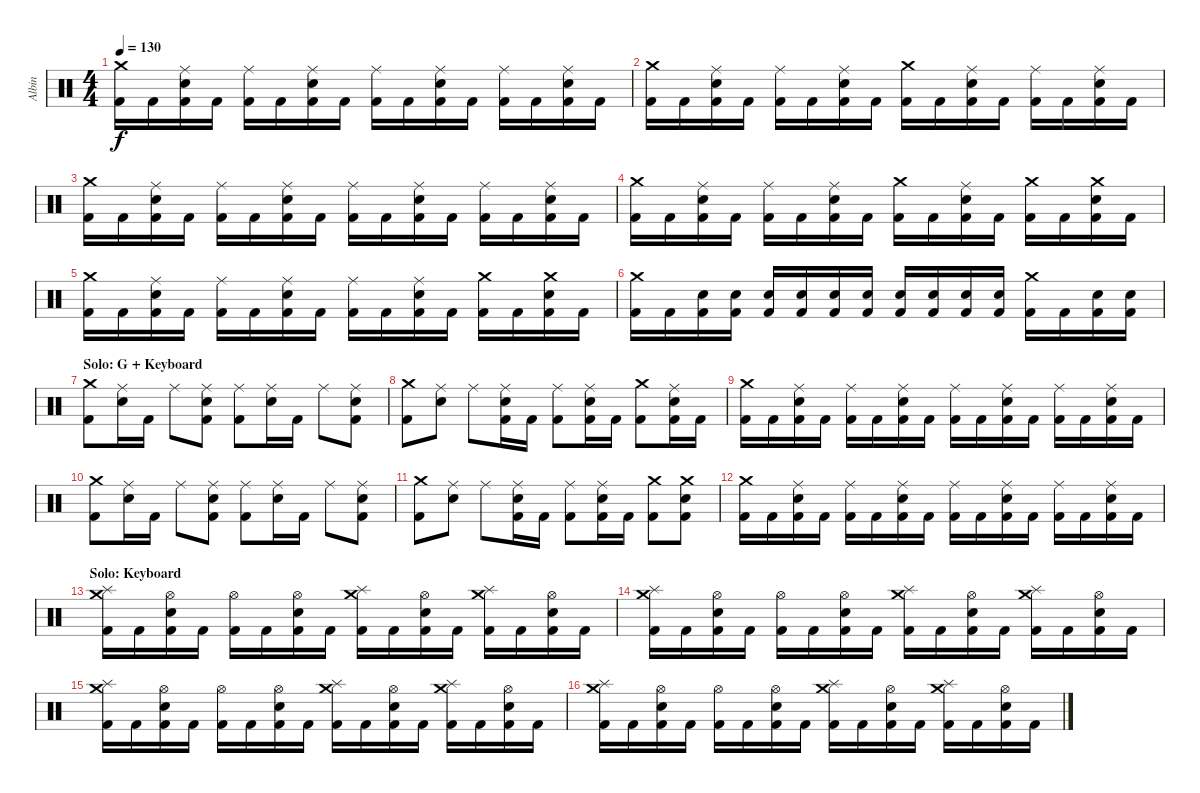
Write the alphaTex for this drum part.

\track ("Albin" "Albin") {instrument percussion}
\staff {score}
\articulation defaults
\ts (4 4)
\tempo 130
\clef neutral
\ks c
("Crash medium (hit)" "Kick (hit) 2").16{dy f} "Kick (hit) 2".16 ("Ride (middle)" "Electric Snare (hit)" "Kick (hit) 2").16 "Kick (hit) 2".16 ("Ride (middle)" "Kick (hit) 2").16 "Kick (hit) 2".16 ("Ride (middle)" "Electric Snare (hit)" "Kick (hit) 2").16 "Kick (hit) 2".16 ("Ride (middle)" "Kick (hit) 2").16 "Kick (hit) 2".16 ("Ride (middle)" "Electric Snare (hit)" "Kick (hit) 2").16 "Kick (hit) 2".16 ("Ride (middle)" "Kick (hit) 2").16 "Kick (hit) 2".16 ("Ride (middle)" "Electric Snare (hit)" "Kick (hit) 2").16 "Kick (hit) 2".16 |
("Crash medium (hit)" "Kick (hit) 2").16 "Kick (hit) 2".16 ("Ride (middle)" "Electric Snare (hit)" "Kick (hit) 2").16 "Kick (hit) 2".16 ("Ride (middle)" "Kick (hit) 2").16 "Kick (hit) 2".16 ("Ride (middle)" "Electric Snare (hit)" "Kick (hit) 2").16 "Kick (hit) 2".16 ("Crash medium (hit)" "Kick (hit) 2").16 "Kick (hit) 2".16 ("Ride (middle)" "Electric Snare (hit)" "Kick (hit) 2").16 "Kick (hit) 2".16 ("Ride (middle)" "Kick (hit) 2").16 "Kick (hit) 2".16 ("Ride (middle)" "Electric Snare (hit)" "Kick (hit) 2").16 "Kick (hit) 2".16 |
("Crash medium (hit)" "Kick (hit) 2").16 "Kick (hit) 2".16 ("Ride (middle)" "Electric Snare (hit)" "Kick (hit) 2").16 "Kick (hit) 2".16 ("Ride (middle)" "Kick (hit) 2").16 "Kick (hit) 2".16 ("Ride (middle)" "Electric Snare (hit)" "Kick (hit) 2").16 "Kick (hit) 2".16 ("Ride (middle)" "Kick (hit) 2").16 "Kick (hit) 2".16 ("Ride (middle)" "Electric Snare (hit)" "Kick (hit) 2").16 "Kick (hit) 2".16 ("Ride (middle)" "Kick (hit) 2").16 "Kick (hit) 2".16 ("Ride (middle)" "Electric Snare (hit)" "Kick (hit) 2").16 "Kick (hit) 2".16 |
("Crash medium (hit)" "Kick (hit) 2").16 "Kick (hit) 2".16 ("Ride (middle)" "Electric Snare (hit)" "Kick (hit) 2").16 "Kick (hit) 2".16 ("Ride (middle)" "Kick (hit) 2").16 "Kick (hit) 2".16 ("Ride (middle)" "Electric Snare (hit)" "Kick (hit) 2").16 "Kick (hit) 2".16 ("Crash medium (hit)" "Kick (hit) 2").16 "Kick (hit) 2".16 ("Ride (middle)" "Electric Snare (hit)" "Kick (hit) 2").16 "Kick (hit) 2".16 ("Crash medium (hit)" "Kick (hit) 2").16 "Kick (hit) 2".16 ("Crash medium (hit)" "Electric Snare (hit)" "Kick (hit) 2").16 "Kick (hit) 2".16 |
("Crash medium (hit)" "Kick (hit) 2").16 "Kick (hit) 2".16 ("Ride (middle)" "Electric Snare (hit)" "Kick (hit) 2").16 "Kick (hit) 2".16 ("Ride (middle)" "Kick (hit) 2").16 "Kick (hit) 2".16 ("Ride (middle)" "Electric Snare (hit)" "Kick (hit) 2").16 "Kick (hit) 2".16 ("Ride (middle)" "Kick (hit) 2").16 "Kick (hit) 2".16 ("Ride (middle)" "Electric Snare (hit)" "Kick (hit) 2").16 "Kick (hit) 2".16 ("Crash medium (hit)" "Kick (hit) 2").16 "Kick (hit) 2".16 ("Crash medium (hit)" "Electric Snare (hit)" "Kick (hit) 2").16 "Kick (hit) 2".16 |
("Crash medium (hit)" "Kick (hit) 2").16 "Kick (hit) 2".16 ("Electric Snare (hit)" "Kick (hit) 2").16 ("Electric Snare (hit)" "Kick (hit) 2").16 ("Electric Snare (hit)" "Kick (hit) 2").16 ("Electric Snare (hit)" "Kick (hit) 2").16 ("Electric Snare (hit)" "Kick (hit) 2").16 ("Electric Snare (hit)" "Kick (hit) 2").16 ("Electric Snare (hit)" "Kick (hit) 2").16 ("Electric Snare (hit)" "Kick (hit) 2").16 ("Electric Snare (hit)" "Kick (hit) 2").16 ("Electric Snare (hit)" "Kick (hit) 2").16 ("Crash medium (hit)" "Kick (hit) 2").16 "Kick (hit) 2".16 ("Electric Snare (hit)" "Kick (hit) 2").16 ("Electric Snare (hit)" "Kick (hit) 2").16 |
\section ("" "Solo: G + Keyboard")
("Crash medium (hit)" "Kick (hit) 2").8 ("Ride (middle)" "Electric Snare (hit)").16 "Kick (hit) 2".16 "Ride (middle)".8 ("Ride (middle)" "Electric Snare (hit)" "Kick (hit) 2").8 ("Ride (middle)" "Kick (hit) 2").8 ("Ride (middle)" "Electric Snare (hit)").16 "Kick (hit) 2".16 "Ride (middle)".8 ("Ride (middle)" "Electric Snare (hit)" "Kick (hit) 2").8 |
("Crash medium (hit)" "Kick (hit) 2").8 ("Ride (middle)" "Electric Snare (hit)").8 "Ride (middle)".8 ("Ride (middle)" "Electric Snare (hit)" "Kick (hit) 2").16 "Kick (hit) 2".16 ("Ride (middle)" "Kick (hit) 2").8 ("Ride (middle)" "Electric Snare (hit)" "Kick (hit) 2").16 "Kick (hit) 2".16 ("Crash medium (hit)" "Kick (hit) 2").8 ("Ride (middle)" "Electric Snare (hit)" "Kick (hit) 2").16 "Kick (hit) 2".16 |
("Crash medium (hit)" "Kick (hit) 2").16 "Kick (hit) 2".16 ("Ride (middle)" "Electric Snare (hit)" "Kick (hit) 2").16 "Kick (hit) 2".16 ("Ride (middle)" "Kick (hit) 2").16 "Kick (hit) 2".16 ("Ride (middle)" "Electric Snare (hit)" "Kick (hit) 2").16 "Kick (hit) 2".16 ("Ride (middle)" "Kick (hit) 2").16 "Kick (hit) 2".16 ("Ride (middle)" "Electric Snare (hit)" "Kick (hit) 2").16 "Kick (hit) 2".16 ("Ride (middle)" "Kick (hit) 2").16 "Kick (hit) 2".16 ("Ride (middle)" "Electric Snare (hit)" "Kick (hit) 2").16 "Kick (hit) 2".16 |
("Crash medium (hit)" "Kick (hit) 2").8 ("Ride (middle)" "Electric Snare (hit)").16 "Kick (hit) 2".16 "Ride (middle)".8 ("Ride (middle)" "Electric Snare (hit)" "Kick (hit) 2").8 ("Ride (middle)" "Kick (hit) 2").8 ("Ride (middle)" "Electric Snare (hit)").16 "Kick (hit) 2".16 "Ride (middle)".8 ("Ride (middle)" "Electric Snare (hit)" "Kick (hit) 2").8 |
("Crash medium (hit)" "Kick (hit) 2").8 ("Ride (middle)" "Electric Snare (hit)").8 "Ride (middle)".8 ("Ride (middle)" "Electric Snare (hit)" "Kick (hit) 2").16 "Kick (hit) 2".16 ("Ride (middle)" "Kick (hit) 2").8 ("Ride (middle)" "Electric Snare (hit)" "Kick (hit) 2").16 "Kick (hit) 2".16 ("Crash medium (hit)" "Kick (hit) 2").8 ("Crash medium (hit)" "Electric Snare (hit)" "Kick (hit) 2").8 |
("Crash medium (hit)" "Kick (hit) 2").16 "Kick (hit) 2".16 ("Ride (middle)" "Electric Snare (hit)" "Kick (hit) 2").16 "Kick (hit) 2".16 ("Ride (middle)" "Kick (hit) 2").16 "Kick (hit) 2".16 ("Ride (middle)" "Electric Snare (hit)" "Kick (hit) 2").16 "Kick (hit) 2".16 ("Ride (middle)" "Kick (hit) 2").16 "Kick (hit) 2".16 ("Ride (middle)" "Electric Snare (hit)" "Kick (hit) 2").16 "Kick (hit) 2".16 ("Ride (middle)" "Kick (hit) 2").16 "Kick (hit) 2".16 ("Ride (middle)" "Electric Snare (hit)" "Kick (hit) 2").16 "Kick (hit) 2".16 |
\section ("" "Solo: Keyboard")
("Crash medium (hit)" "Splash (hit)" "Kick (hit) 2").16 "Kick (hit) 2".16 ("Hi-Hat (open)" "Electric Snare (hit)" "Kick (hit) 2").16 "Kick (hit) 2".16 ("Hi-Hat (open)" "Kick (hit) 2").16 "Kick (hit) 2".16 ("Hi-Hat (open)" "Electric Snare (hit)" "Kick (hit) 2").16 "Kick (hit) 2".16 ("Crash medium (hit)" "Splash (hit)" "Kick (hit) 2").16 "Kick (hit) 2".16 ("Hi-Hat (open)" "Electric Snare (hit)" "Kick (hit) 2").16 "Kick (hit) 2".16 ("Crash medium (hit)" "Splash (hit)" "Kick (hit) 2").16 "Kick (hit) 2".16 ("Hi-Hat (open)" "Electric Snare (hit)" "Kick (hit) 2").16 "Kick (hit) 2".16 |
("Crash medium (hit)" "Splash (hit)" "Kick (hit) 2").16 "Kick (hit) 2".16 ("Hi-Hat (open)" "Electric Snare (hit)" "Kick (hit) 2").16 "Kick (hit) 2".16 ("Hi-Hat (open)" "Kick (hit) 2").16 "Kick (hit) 2".16 ("Hi-Hat (open)" "Electric Snare (hit)" "Kick (hit) 2").16 "Kick (hit) 2".16 ("Crash medium (hit)" "Splash (hit)" "Kick (hit) 2").16 "Kick (hit) 2".16 ("Hi-Hat (open)" "Electric Snare (hit)" "Kick (hit) 2").16 "Kick (hit) 2".16 ("Crash medium (hit)" "Splash (hit)" "Kick (hit) 2").16 "Kick (hit) 2".16 ("Hi-Hat (open)" "Electric Snare (hit)" "Kick (hit) 2").16 "Kick (hit) 2".16 |
("Crash medium (hit)" "Splash (hit)" "Kick (hit) 2").16 "Kick (hit) 2".16 ("Hi-Hat (open)" "Electric Snare (hit)" "Kick (hit) 2").16 "Kick (hit) 2".16 ("Hi-Hat (open)" "Kick (hit) 2").16 "Kick (hit) 2".16 ("Hi-Hat (open)" "Electric Snare (hit)" "Kick (hit) 2").16 "Kick (hit) 2".16 ("Crash medium (hit)" "Splash (hit)" "Kick (hit) 2").16 "Kick (hit) 2".16 ("Hi-Hat (open)" "Electric Snare (hit)" "Kick (hit) 2").16 "Kick (hit) 2".16 ("Crash medium (hit)" "Splash (hit)" "Kick (hit) 2").16 "Kick (hit) 2".16 ("Hi-Hat (open)" "Electric Snare (hit)" "Kick (hit) 2").16 "Kick (hit) 2".16 |
("Crash medium (hit)" "Splash (hit)" "Kick (hit) 2").16 "Kick (hit) 2".16 ("Hi-Hat (open)" "Electric Snare (hit)" "Kick (hit) 2").16 "Kick (hit) 2".16 ("Hi-Hat (open)" "Kick (hit) 2").16 "Kick (hit) 2".16 ("Hi-Hat (open)" "Electric Snare (hit)" "Kick (hit) 2").16 "Kick (hit) 2".16 ("Crash medium (hit)" "Splash (hit)" "Kick (hit) 2").16 "Kick (hit) 2".16 ("Hi-Hat (open)" "Electric Snare (hit)" "Kick (hit) 2").16 "Kick (hit) 2".16 ("Crash medium (hit)" "Splash (hit)" "Kick (hit) 2").16 "Kick (hit) 2".16 ("Hi-Hat (open)" "Electric Snare (hit)" "Kick (hit) 2").16 "Kick (hit) 2".16
